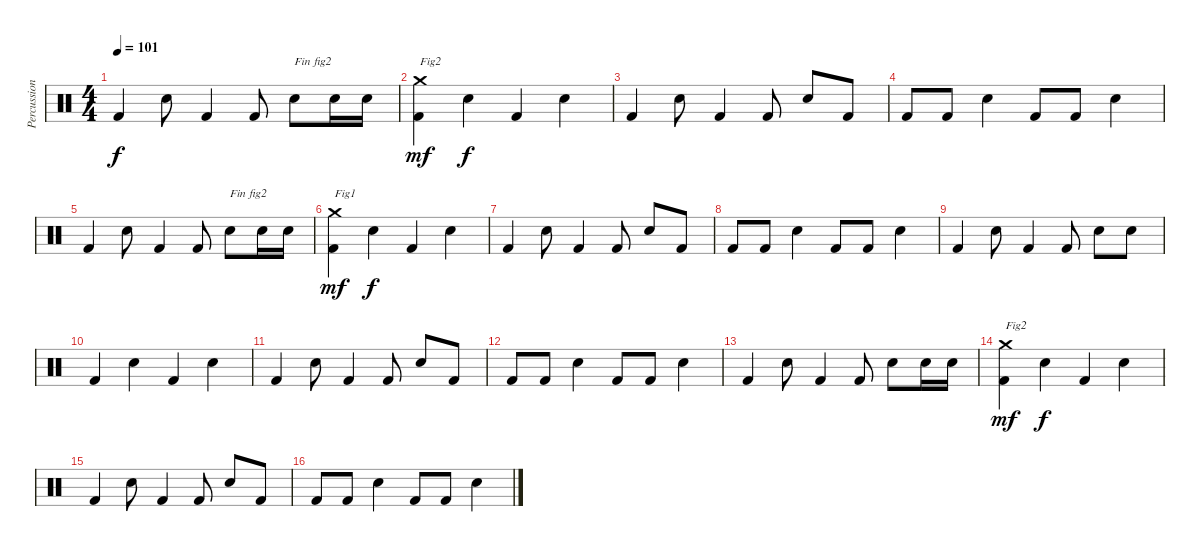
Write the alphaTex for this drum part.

\track ("Percussions" "Percussion") {instrument percussion}
\staff {score}
\articulation defaults
\ts (4 4)
\tempo 101
\clef neutral
\ks c "Kick (hit) 2".4{dy f} "Snare (hit) 2".8 "Kick (hit) 2".4 "Kick (hit) 2".8 "Snare (hit) 2".8{txt "Fin fig2"} "Snare (hit) 2".16 "Snare (hit) 2".16
|
("Kick (hit) 2" "Crash medium (hit)").4{txt "Fig2" dy mf} "Snare (hit) 2".4{dy f} "Kick (hit) 2".4 "Snare (hit) 2".4 |
"Kick (hit) 2".4 "Snare (hit) 2".8 "Kick (hit) 2".4 "Kick (hit) 2".8 "Snare (hit) 2".8 "Kick (hit) 2".8 |
"Kick (hit) 2".8 "Kick (hit) 2".8 "Snare (hit) 2".4 "Kick (hit) 2".8 "Kick (hit) 2".8 "Snare (hit) 2".4 |
"Kick (hit) 2".4 "Snare (hit) 2".8 "Kick (hit) 2".4 "Kick (hit) 2".8 "Snare (hit) 2".8{txt "Fin fig2"} "Snare (hit) 2".16 "Snare (hit) 2".16 |
("Kick (hit) 2" "Crash medium (hit)").4{txt "Fig1" dy mf} "Snare (hit) 2".4{dy f} "Kick (hit) 2".4 "Snare (hit) 2".4 |
"Kick (hit) 2".4 "Snare (hit) 2".8 "Kick (hit) 2".4 "Kick (hit) 2".8 "Snare (hit) 2".8 "Kick (hit) 2".8 |
"Kick (hit) 2".8 "Kick (hit) 2".8 "Snare (hit) 2".4 "Kick (hit) 2".8 "Kick (hit) 2".8 "Snare (hit) 2".4 |
"Kick (hit) 2".4 "Snare (hit) 2".8 "Kick (hit) 2".4 "Kick (hit) 2".8 "Snare (hit) 2".8 "Snare (hit) 2".8 |
"Kick (hit) 2".4 "Snare (hit) 2".4 "Kick (hit) 2".4 "Snare (hit) 2".4 |
"Kick (hit) 2".4 "Snare (hit) 2".8 "Kick (hit) 2".4 "Kick (hit) 2".8 "Snare (hit) 2".8 "Kick (hit) 2".8 |
"Kick (hit) 2".8 "Kick (hit) 2".8 "Snare (hit) 2".4 "Kick (hit) 2".8 "Kick (hit) 2".8 "Snare (hit) 2".4 |
"Kick (hit) 2".4 "Snare (hit) 2".8 "Kick (hit) 2".4 "Kick (hit) 2".8 "Snare (hit) 2".8 "Snare (hit) 2".16 "Snare (hit) 2".16 |
("Kick (hit) 2" "Crash medium (hit)").4{txt "Fig2" dy mf} "Snare (hit) 2".4{dy f} "Kick (hit) 2".4 "Snare (hit) 2".4 |
"Kick (hit) 2".4 "Snare (hit) 2".8 "Kick (hit) 2".4 "Kick (hit) 2".8 "Snare (hit) 2".8 "Kick (hit) 2".8 |
"Kick (hit) 2".8 "Kick (hit) 2".8 "Snare (hit) 2".4 "Kick (hit) 2".8 "Kick (hit) 2".8 "Snare (hit) 2".4
